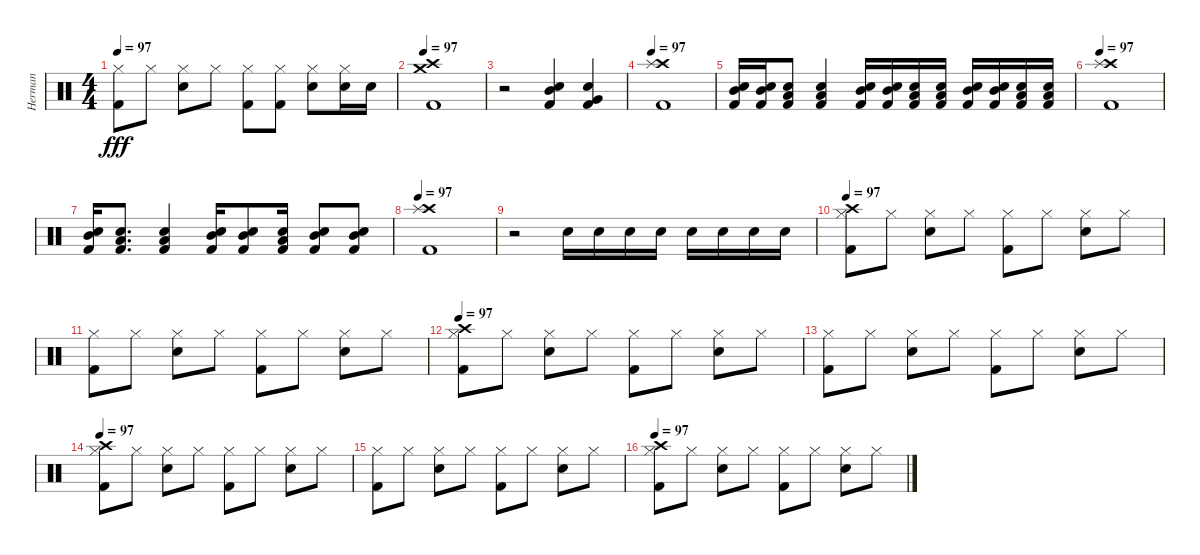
\track ("Herman" "Herman") {instrument percussion}
\staff {score}
\articulation defaults
\ts (4 4)
\tempo 97
\clef neutral
\ks c
("Hi-Hat (closed)" "Kick (hit) 2").8{dy fff} "Hi-Hat (closed)".8 ("Hi-Hat (closed)" "Snare (hit) 2").8 "Hi-Hat (closed)".8 ("Hi-Hat (closed)" "Kick (hit) 2").8 ("Hi-Hat (closed)" "Kick (hit) 2").8 ("Hi-Hat (closed)" "Snare (hit) 2").8 ("Hi-Hat (closed)" "Snare (hit) 2").16 "Snare (hit) 2".16 |
\tempo 97
("Crash high (hit)" "Crash medium (hit)" "Kick (hit) 2").1 |
r.2 ("Snare (hit) 2" "Mid Tom (hit)" "Kick (hit) 2").4 ("Snare (hit) 2" "Very Low Tom (hit)" "Kick (hit) 2").4 |
\tempo 97
("Crash high (hit)" "Splash (hit)" "Kick (hit) 2").1 |
("Snare (hit) 2" "Mid Tom (hit)" "Kick (hit) 2").16 ("Snare (hit) 2" "Mid Tom (hit)" "Kick (hit) 2").16 ("Snare (hit) 2" "Low Tom (hit)" "Kick (hit) 2").8 ("Snare (hit) 2" "Low Floor Tom (hit)" "Kick (hit) 2").4 ("Snare (hit) 2" "Mid Tom (hit)" "Kick (hit) 2").16 ("Snare (hit) 2" "Mid Tom (hit)" "Kick (hit) 2").16 ("Snare (hit) 2" "Low Tom (hit)" "Kick (hit) 2").16 ("Snare (hit) 2" "Low Floor Tom (hit)" "Kick (hit) 2").16 ("Snare (hit) 2" "Mid Tom (hit)" "Kick (hit) 2").16 ("Snare (hit) 2" "Mid Tom (hit)" "Kick (hit) 2").16 ("Snare (hit) 2" "Low Tom (hit)" "Kick (hit) 2").16 ("Snare (hit) 2" "Low Floor Tom (hit)" "Kick (hit) 2").16 |
\tempo 97
("Crash high (hit)" "Splash (hit)" "Kick (hit) 2").1 |
("Snare (hit) 2" "Mid Tom (hit)" "Kick (hit) 2").16 ("Snare (hit) 2" "Low Tom (hit)" "Kick (hit) 2").8{d} ("Snare (hit) 2" "Low Floor Tom (hit)" "Kick (hit) 2").4 ("Snare (hit) 2" "Mid Tom (hit)" "Kick (hit) 2").16 ("Snare (hit) 2" "Mid Tom (hit)" "Kick (hit) 2").8 ("Snare (hit) 2" "Low Floor Tom (hit)" "Kick (hit) 2").16 ("Snare (hit) 2" "Mid Tom (hit)" "Kick (hit) 2").8 ("Snare (hit) 2" "Mid Tom (hit)" "Kick (hit) 2").8 |
\tempo 97
("Crash high (hit)" "Splash (hit)" "Kick (hit) 2").1 |
r.2 "Snare (hit) 2".16 "Snare (hit) 2".16 "Snare (hit) 2".16 "Snare (hit) 2".16 "Snare (hit) 2".16 "Snare (hit) 2".16 "Snare (hit) 2".16 "Snare (hit) 2".16 |
\tempo 97
("Crash high (hit)" "Hi-Hat (closed)" "Kick (hit) 2").8 "Hi-Hat (closed)".8 ("Hi-Hat (closed)" "Snare (hit) 2").8 "Hi-Hat (closed)".8 ("Hi-Hat (closed)" "Kick (hit) 2").8 "Hi-Hat (closed)".8 ("Hi-Hat (closed)" "Snare (hit) 2").8 "Hi-Hat (closed)".8 |
("Hi-Hat (closed)" "Kick (hit) 2").8 "Hi-Hat (closed)".8 ("Hi-Hat (closed)" "Snare (hit) 2").8 "Hi-Hat (closed)".8 ("Hi-Hat (closed)" "Kick (hit) 2").8 "Hi-Hat (closed)".8 ("Hi-Hat (closed)" "Snare (hit) 2").8 "Hi-Hat (closed)".8 |
\tempo 97
("Crash high (hit)" "Hi-Hat (closed)" "Kick (hit) 2").8 "Hi-Hat (closed)".8 ("Hi-Hat (closed)" "Snare (hit) 2").8 "Hi-Hat (closed)".8 ("Hi-Hat (closed)" "Kick (hit) 2").8 "Hi-Hat (closed)".8 ("Hi-Hat (closed)" "Snare (hit) 2").8 "Hi-Hat (closed)".8 |
("Hi-Hat (closed)" "Kick (hit) 2").8 "Hi-Hat (closed)".8 ("Hi-Hat (closed)" "Snare (hit) 2").8 "Hi-Hat (closed)".8 ("Hi-Hat (closed)" "Kick (hit) 2").8 "Hi-Hat (closed)".8 ("Hi-Hat (closed)" "Snare (hit) 2").8 "Hi-Hat (closed)".8 |
\tempo 97
("Crash high (hit)" "Hi-Hat (closed)" "Kick (hit) 2").8 "Hi-Hat (closed)".8 ("Hi-Hat (closed)" "Snare (hit) 2").8 "Hi-Hat (closed)".8 ("Hi-Hat (closed)" "Kick (hit) 2").8 "Hi-Hat (closed)".8 ("Hi-Hat (closed)" "Snare (hit) 2").8 "Hi-Hat (closed)".8 |
("Hi-Hat (closed)" "Kick (hit) 2").8 "Hi-Hat (closed)".8 ("Hi-Hat (closed)" "Snare (hit) 2").8 "Hi-Hat (closed)".8 ("Hi-Hat (closed)" "Kick (hit) 2").8 "Hi-Hat (closed)".8 ("Hi-Hat (closed)" "Snare (hit) 2").8 "Hi-Hat (closed)".8 |
\tempo 97
("Crash high (hit)" "Hi-Hat (closed)" "Kick (hit) 2").8 "Hi-Hat (closed)".8 ("Hi-Hat (closed)" "Snare (hit) 2").8 "Hi-Hat (closed)".8 ("Hi-Hat (closed)" "Kick (hit) 2").8 "Hi-Hat (closed)".8 ("Hi-Hat (closed)" "Snare (hit) 2").8 "Hi-Hat (closed)".8
